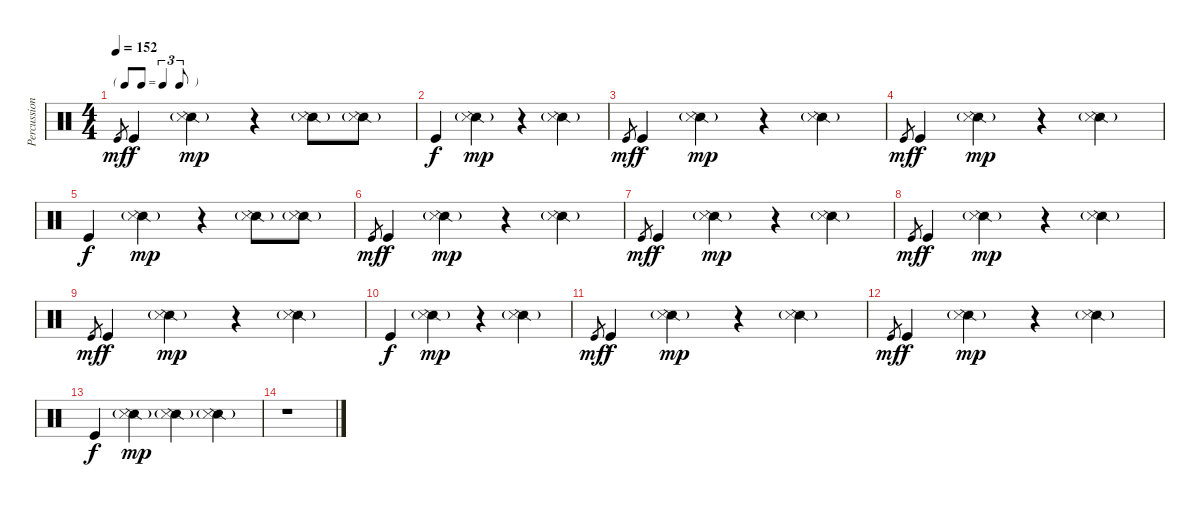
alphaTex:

\track ("Percussion" "Percussion") {instrument percussion}
\staff {score}
\articulation defaults
\ts (4 4)
\tf triplet8th
\tempo 152
\clef neutral
\ks c "Kick (hit)".8{gr dy mf} "Kick (hit)".4{dy f}
("Snare (side stick) 2"{g} "Snare (side stick) 3").4{dy mp} r.4 ("Snare (side stick) 2"{g} "Snare (side stick) 3").8 ("Snare (side stick) 2"{g} "Snare (side stick) 3").8 |
"Kick (hit)".4{dy f} ("Snare (side stick) 2"{g} "Snare (side stick) 3").4{dy mp} r.4 ("Snare (side stick) 2"{g} "Snare (side stick) 3").4 |
"Kick (hit)".8{gr dy mf} "Kick (hit)".4{dy f} ("Snare (side stick) 2"{g} "Snare (side stick) 3").4{dy mp} r.4 ("Snare (side stick) 2"{g} "Snare (side stick) 3").4 |
"Kick (hit)".8{gr dy mf} "Kick (hit)".4{dy f} ("Snare (side stick) 2"{g} "Snare (side stick) 3").4{dy mp} r.4 ("Snare (side stick) 2"{g} "Snare (side stick) 3").4 |
"Kick (hit)".4{dy f} ("Snare (side stick) 2"{g} "Snare (side stick) 3").4{dy mp} r.4 ("Snare (side stick) 2"{g} "Snare (side stick) 3").8 ("Snare (side stick) 2"{g} "Snare (side stick) 3").8 |
"Kick (hit)".8{gr dy mf} "Kick (hit)".4{dy f} ("Snare (side stick) 2"{g} "Snare (side stick) 3").4{dy mp} r.4 ("Snare (side stick) 2"{g} "Snare (side stick) 3").4 |
"Kick (hit)".8{gr dy mf} "Kick (hit)".4{dy f} ("Snare (side stick) 2"{g} "Snare (side stick) 3").4{dy mp} r.4 ("Snare (side stick) 2"{g} "Snare (side stick) 3").4 |
"Kick (hit)".8{gr dy mf} "Kick (hit)".4{dy f} ("Snare (side stick) 2"{g} "Snare (side stick) 3").4{dy mp} r.4 ("Snare (side stick) 2"{g} "Snare (side stick) 3").4 |
"Kick (hit)".8{gr dy mf} "Kick (hit)".4{dy f} ("Snare (side stick) 2"{g} "Snare (side stick) 3").4{dy mp} r.4 ("Snare (side stick) 2"{g} "Snare (side stick) 3").4 |
"Kick (hit)".4{dy f} ("Snare (side stick) 2"{g} "Snare (side stick) 3").4{dy mp} r.4 ("Snare (side stick) 2"{g} "Snare (side stick) 3").4 |
"Kick (hit)".8{gr dy mf} "Kick (hit)".4{dy f} ("Snare (side stick) 2"{g} "Snare (side stick) 3").4{dy mp} r.4 ("Snare (side stick) 2"{g} "Snare (side stick) 3").4 |
"Kick (hit)".8{gr dy mf} "Kick (hit)".4{dy f} ("Snare (side stick) 2"{g} "Snare (side stick) 3").4{dy mp} r.4 ("Snare (side stick) 2"{g} "Snare (side stick) 3").4 |
"Kick (hit)".4{dy f} ("Snare (side stick) 2"{g} "Snare (side stick) 3").4{dy mp} ("Snare (side stick) 2"{g} "Snare (side stick) 3").4 ("Snare (side stick) 2"{g} "Snare (side stick) 3").4 |
r.1
